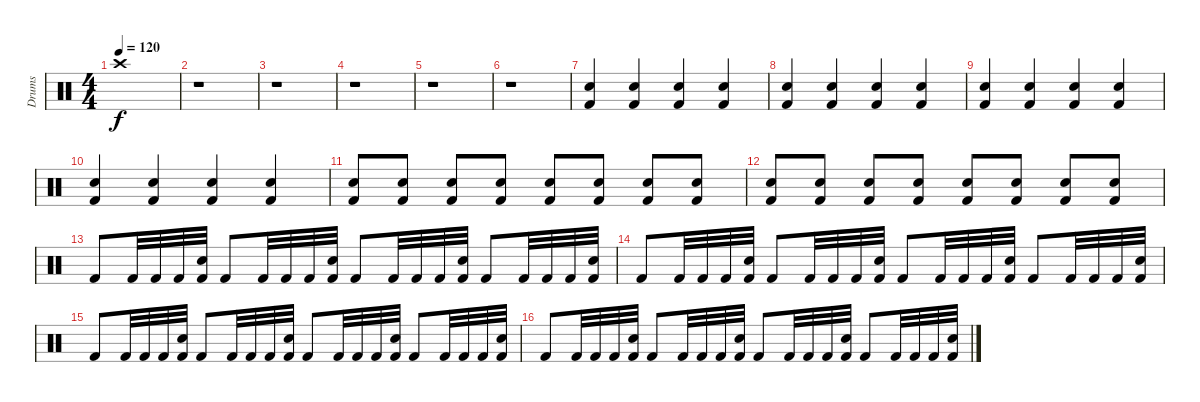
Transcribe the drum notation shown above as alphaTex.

\track ("Drums" "Drums") {instrument percussion}
\staff {score}
\articulation defaults
\ts (4 4)
\tempo 120
\clef neutral
\ks c "Crash high (hit)".1{dy f}
|
r.1 |
r.1 |
r.1 |
r.1 |
r.1 |
("Electric Snare (hit)" "Kick (hit) 2").4 ("Electric Snare (hit)" "Kick (hit) 2").4 ("Electric Snare (hit)" "Kick (hit) 2").4 ("Electric Snare (hit)" "Kick (hit) 2").4 |
("Electric Snare (hit)" "Kick (hit) 2").4 ("Electric Snare (hit)" "Kick (hit) 2").4 ("Electric Snare (hit)" "Kick (hit) 2").4 ("Electric Snare (hit)" "Kick (hit) 2").4 |
("Electric Snare (hit)" "Kick (hit) 2").4 ("Electric Snare (hit)" "Kick (hit) 2").4 ("Electric Snare (hit)" "Kick (hit) 2").4 ("Electric Snare (hit)" "Kick (hit) 2").4 |
("Electric Snare (hit)" "Kick (hit) 2").4 ("Electric Snare (hit)" "Kick (hit) 2").4 ("Electric Snare (hit)" "Kick (hit) 2").4 ("Electric Snare (hit)" "Kick (hit) 2").4 |
("Electric Snare (hit)" "Kick (hit) 2").8 ("Electric Snare (hit)" "Kick (hit) 2").8 ("Electric Snare (hit)" "Kick (hit) 2").8 ("Electric Snare (hit)" "Kick (hit) 2").8 ("Electric Snare (hit)" "Kick (hit) 2").8 ("Electric Snare (hit)" "Kick (hit) 2").8 ("Electric Snare (hit)" "Kick (hit) 2").8 ("Electric Snare (hit)" "Kick (hit) 2").8 |
("Electric Snare (hit)" "Kick (hit) 2").8 ("Electric Snare (hit)" "Kick (hit) 2").8 ("Electric Snare (hit)" "Kick (hit) 2").8 ("Electric Snare (hit)" "Kick (hit) 2").8 ("Electric Snare (hit)" "Kick (hit) 2").8 ("Electric Snare (hit)" "Kick (hit) 2").8 ("Electric Snare (hit)" "Kick (hit) 2").8 ("Electric Snare (hit)" "Kick (hit) 2").8 |
"Kick (hit) 2".8 "Kick (hit) 2".32 "Kick (hit) 2".32 "Kick (hit) 2".32 ("Electric Snare (hit)" "Kick (hit) 2").32 "Kick (hit) 2".8 "Kick (hit) 2".32 "Kick (hit) 2".32 "Kick (hit) 2".32 ("Electric Snare (hit)" "Kick (hit) 2").32 "Kick (hit) 2".8 "Kick (hit) 2".32 "Kick (hit) 2".32 "Kick (hit) 2".32 ("Electric Snare (hit)" "Kick (hit) 2").32 "Kick (hit) 2".8 "Kick (hit) 2".32 "Kick (hit) 2".32 "Kick (hit) 2".32 ("Electric Snare (hit)" "Kick (hit) 2").32 |
"Kick (hit) 2".8 "Kick (hit) 2".32 "Kick (hit) 2".32 "Kick (hit) 2".32 ("Electric Snare (hit)" "Kick (hit) 2").32 "Kick (hit) 2".8 "Kick (hit) 2".32 "Kick (hit) 2".32 "Kick (hit) 2".32 ("Electric Snare (hit)" "Kick (hit) 2").32 "Kick (hit) 2".8 "Kick (hit) 2".32 "Kick (hit) 2".32 "Kick (hit) 2".32 ("Electric Snare (hit)" "Kick (hit) 2").32 "Kick (hit) 2".8 "Kick (hit) 2".32 "Kick (hit) 2".32 "Kick (hit) 2".32 ("Electric Snare (hit)" "Kick (hit) 2").32 |
"Kick (hit) 2".8 "Kick (hit) 2".32 "Kick (hit) 2".32 "Kick (hit) 2".32 ("Electric Snare (hit)" "Kick (hit) 2").32 "Kick (hit) 2".8 "Kick (hit) 2".32 "Kick (hit) 2".32 "Kick (hit) 2".32 ("Electric Snare (hit)" "Kick (hit) 2").32 "Kick (hit) 2".8 "Kick (hit) 2".32 "Kick (hit) 2".32 "Kick (hit) 2".32 ("Electric Snare (hit)" "Kick (hit) 2").32 "Kick (hit) 2".8 "Kick (hit) 2".32 "Kick (hit) 2".32 "Kick (hit) 2".32 ("Electric Snare (hit)" "Kick (hit) 2").32 |
"Kick (hit) 2".8 "Kick (hit) 2".32 "Kick (hit) 2".32 "Kick (hit) 2".32 ("Electric Snare (hit)" "Kick (hit) 2").32 "Kick (hit) 2".8 "Kick (hit) 2".32 "Kick (hit) 2".32 "Kick (hit) 2".32 ("Electric Snare (hit)" "Kick (hit) 2").32 "Kick (hit) 2".8 "Kick (hit) 2".32 "Kick (hit) 2".32 "Kick (hit) 2".32 ("Electric Snare (hit)" "Kick (hit) 2").32 "Kick (hit) 2".8 "Kick (hit) 2".32 "Kick (hit) 2".32 "Kick (hit) 2".32 ("Electric Snare (hit)" "Kick (hit) 2").32
